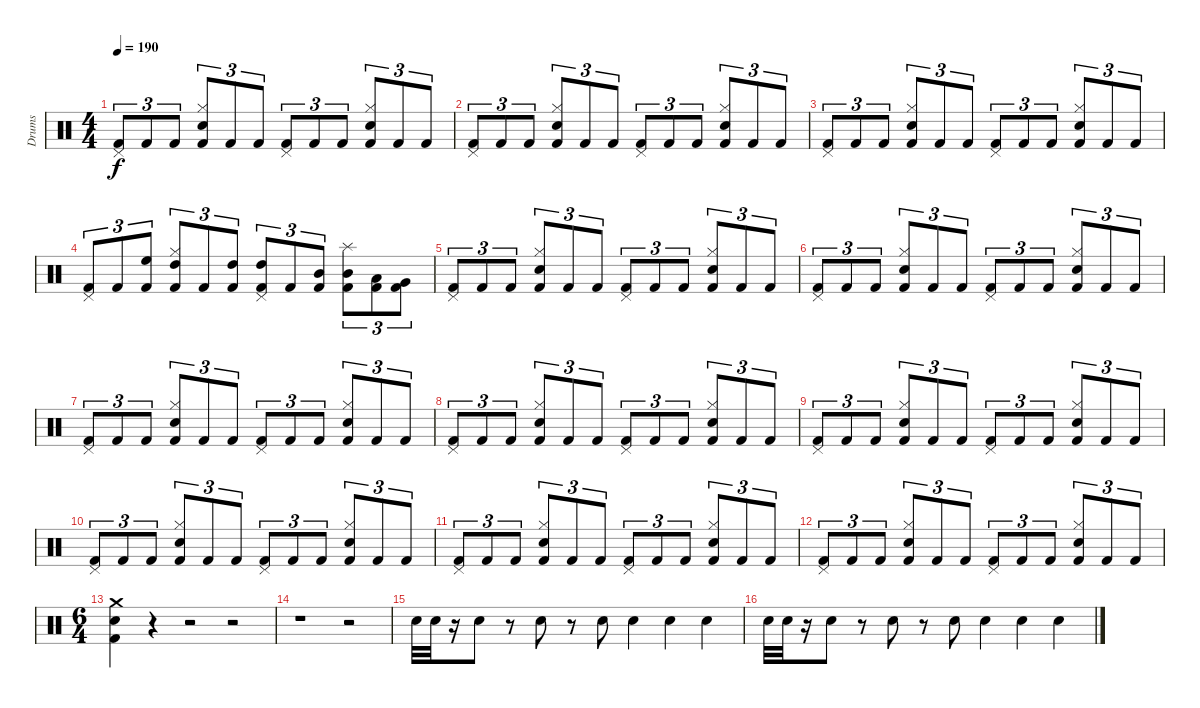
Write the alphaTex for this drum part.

\track ("Drums" "Drums") {instrument percussion}
\staff {score}
\articulation defaults
\ts (4 4)
\tempo 190
\clef neutral
\ks c
("Pedal Hi-Hat (hit)" "Kick (hit) 2").8{tu (3 2) dy f} "Kick (hit) 2".8{tu (3 2)} "Kick (hit) 2".8{tu (3 2)} ("Hi-Hat (closed)" "Snare (hit) 2" "Kick (hit) 2").8{tu (3 2)} "Kick (hit) 2".8{tu (3 2)} "Kick (hit) 2".8{tu (3 2)} ("Pedal Hi-Hat (hit)" "Kick (hit) 2").8{tu (3 2)} "Kick (hit) 2".8{tu (3 2)} "Kick (hit) 2".8{tu (3 2)} ("Hi-Hat (closed)" "Snare (hit) 2" "Kick (hit) 2").8{tu (3 2)} "Kick (hit) 2".8{tu (3 2)} "Kick (hit) 2".8{tu (3 2)} |
("Pedal Hi-Hat (hit)" "Kick (hit) 2").8{tu (3 2)} "Kick (hit) 2".8{tu (3 2)} "Kick (hit) 2".8{tu (3 2)} ("Hi-Hat (closed)" "Snare (hit) 2" "Kick (hit) 2").8{tu (3 2)} "Kick (hit) 2".8{tu (3 2)} "Kick (hit) 2".8{tu (3 2)} ("Pedal Hi-Hat (hit)" "Kick (hit) 2").8{tu (3 2)} "Kick (hit) 2".8{tu (3 2)} "Kick (hit) 2".8{tu (3 2)} ("Hi-Hat (closed)" "Snare (hit) 2" "Kick (hit) 2").8{tu (3 2)} "Kick (hit) 2".8{tu (3 2)} "Kick (hit) 2".8{tu (3 2)} |
("Pedal Hi-Hat (hit)" "Kick (hit) 2").8{tu (3 2)} "Kick (hit) 2".8{tu (3 2)} "Kick (hit) 2".8{tu (3 2)} ("Hi-Hat (closed)" "Snare (hit) 2" "Kick (hit) 2").8{tu (3 2)} "Kick (hit) 2".8{tu (3 2)} "Kick (hit) 2".8{tu (3 2)} ("Pedal Hi-Hat (hit)" "Kick (hit) 2").8{tu (3 2)} "Kick (hit) 2".8{tu (3 2)} "Kick (hit) 2".8{tu (3 2)} ("Hi-Hat (closed)" "Snare (hit) 2" "Kick (hit) 2").8{tu (3 2)} "Kick (hit) 2".8{tu (3 2)} "Kick (hit) 2".8{tu (3 2)} |
("Pedal Hi-Hat (hit)" "Kick (hit) 2").8{tu (3 2)} "Kick (hit) 2".8{tu (3 2)} ("High Floor Tom (hit)" "Kick (hit) 2").8{tu (3 2)} ("Hi-Hat (closed)" "High Tom (hit)" "Kick (hit) 2").8{tu (3 2)} "Kick (hit) 2".8{tu (3 2)} ("High Tom (hit)" "Kick (hit) 2").8{tu (3 2)} ("Pedal Hi-Hat (hit)" "High Tom (hit)" "Kick (hit) 2").8{tu (3 2)} "Kick (hit) 2".8{tu (3 2)} ("Mid Tom (hit)" "Kick (hit) 2").8{tu (3 2)} ("Splash (hit)" "Mid Tom (hit)" "Kick (hit) 2").8{tu (3 2)} ("Low Tom (hit)" "Kick (hit) 2").8{tu (3 2)} ("Very Low Tom (hit)" "Kick (hit) 2").8{tu (3 2)} |
("Pedal Hi-Hat (hit)" "Kick (hit) 2").8{tu (3 2)} "Kick (hit) 2".8{tu (3 2)} "Kick (hit) 2".8{tu (3 2)} ("Hi-Hat (closed)" "Snare (hit) 2" "Kick (hit) 2").8{tu (3 2)} "Kick (hit) 2".8{tu (3 2)} "Kick (hit) 2".8{tu (3 2)} ("Pedal Hi-Hat (hit)" "Kick (hit) 2").8{tu (3 2)} "Kick (hit) 2".8{tu (3 2)} "Kick (hit) 2".8{tu (3 2)} ("Hi-Hat (closed)" "Snare (hit) 2" "Kick (hit) 2").8{tu (3 2)} "Kick (hit) 2".8{tu (3 2)} "Kick (hit) 2".8{tu (3 2)} |
("Pedal Hi-Hat (hit)" "Kick (hit) 2").8{tu (3 2)} "Kick (hit) 2".8{tu (3 2)} "Kick (hit) 2".8{tu (3 2)} ("Hi-Hat (closed)" "Snare (hit) 2" "Kick (hit) 2").8{tu (3 2)} "Kick (hit) 2".8{tu (3 2)} "Kick (hit) 2".8{tu (3 2)} ("Pedal Hi-Hat (hit)" "Kick (hit) 2").8{tu (3 2)} "Kick (hit) 2".8{tu (3 2)} "Kick (hit) 2".8{tu (3 2)} ("Hi-Hat (closed)" "Snare (hit) 2" "Kick (hit) 2").8{tu (3 2)} "Kick (hit) 2".8{tu (3 2)} "Kick (hit) 2".8{tu (3 2)} |
("Pedal Hi-Hat (hit)" "Kick (hit) 2").8{tu (3 2)} "Kick (hit) 2".8{tu (3 2)} "Kick (hit) 2".8{tu (3 2)} ("Hi-Hat (closed)" "Snare (hit) 2" "Kick (hit) 2").8{tu (3 2)} "Kick (hit) 2".8{tu (3 2)} "Kick (hit) 2".8{tu (3 2)} ("Pedal Hi-Hat (hit)" "Kick (hit) 2").8{tu (3 2)} "Kick (hit) 2".8{tu (3 2)} "Kick (hit) 2".8{tu (3 2)} ("Hi-Hat (closed)" "Snare (hit) 2" "Kick (hit) 2").8{tu (3 2)} "Kick (hit) 2".8{tu (3 2)} "Kick (hit) 2".8{tu (3 2)} |
("Pedal Hi-Hat (hit)" "Kick (hit) 2").8{tu (3 2)} "Kick (hit) 2".8{tu (3 2)} "Kick (hit) 2".8{tu (3 2)} ("Hi-Hat (closed)" "Snare (hit) 2" "Kick (hit) 2").8{tu (3 2)} "Kick (hit) 2".8{tu (3 2)} "Kick (hit) 2".8{tu (3 2)} ("Pedal Hi-Hat (hit)" "Kick (hit) 2").8{tu (3 2)} "Kick (hit) 2".8{tu (3 2)} "Kick (hit) 2".8{tu (3 2)} ("Hi-Hat (closed)" "Snare (hit) 2" "Kick (hit) 2").8{tu (3 2)} "Kick (hit) 2".8{tu (3 2)} "Kick (hit) 2".8{tu (3 2)} |
("Pedal Hi-Hat (hit)" "Kick (hit) 2").8{tu (3 2)} "Kick (hit) 2".8{tu (3 2)} "Kick (hit) 2".8{tu (3 2)} ("Hi-Hat (closed)" "Snare (hit) 2" "Kick (hit) 2").8{tu (3 2)} "Kick (hit) 2".8{tu (3 2)} "Kick (hit) 2".8{tu (3 2)} ("Pedal Hi-Hat (hit)" "Kick (hit) 2").8{tu (3 2)} "Kick (hit) 2".8{tu (3 2)} "Kick (hit) 2".8{tu (3 2)} ("Hi-Hat (closed)" "Snare (hit) 2" "Kick (hit) 2").8{tu (3 2)} "Kick (hit) 2".8{tu (3 2)} "Kick (hit) 2".8{tu (3 2)} |
("Pedal Hi-Hat (hit)" "Kick (hit) 2").8{tu (3 2)} "Kick (hit) 2".8{tu (3 2)} "Kick (hit) 2".8{tu (3 2)} ("Hi-Hat (closed)" "Snare (hit) 2" "Kick (hit) 2").8{tu (3 2)} "Kick (hit) 2".8{tu (3 2)} "Kick (hit) 2".8{tu (3 2)} ("Pedal Hi-Hat (hit)" "Kick (hit) 2").8{tu (3 2)} "Kick (hit) 2".8{tu (3 2)} "Kick (hit) 2".8{tu (3 2)} ("Hi-Hat (closed)" "Snare (hit) 2" "Kick (hit) 2").8{tu (3 2)} "Kick (hit) 2".8{tu (3 2)} "Kick (hit) 2".8{tu (3 2)} |
("Pedal Hi-Hat (hit)" "Kick (hit) 2").8{tu (3 2)} "Kick (hit) 2".8{tu (3 2)} "Kick (hit) 2".8{tu (3 2)} ("Hi-Hat (closed)" "Snare (hit) 2" "Kick (hit) 2").8{tu (3 2)} "Kick (hit) 2".8{tu (3 2)} "Kick (hit) 2".8{tu (3 2)} ("Pedal Hi-Hat (hit)" "Kick (hit) 2").8{tu (3 2)} "Kick (hit) 2".8{tu (3 2)} "Kick (hit) 2".8{tu (3 2)} ("Hi-Hat (closed)" "Snare (hit) 2" "Kick (hit) 2").8{tu (3 2)} "Kick (hit) 2".8{tu (3 2)} "Kick (hit) 2".8{tu (3 2)} |
("Pedal Hi-Hat (hit)" "Kick (hit) 2").8{tu (3 2)} "Kick (hit) 2".8{tu (3 2)} "Kick (hit) 2".8{tu (3 2)} ("Hi-Hat (closed)" "Snare (hit) 2" "Kick (hit) 2").8{tu (3 2)} "Kick (hit) 2".8{tu (3 2)} "Kick (hit) 2".8{tu (3 2)} ("Pedal Hi-Hat (hit)" "Kick (hit) 2").8{tu (3 2)} "Kick (hit) 2".8{tu (3 2)} "Kick (hit) 2".8{tu (3 2)} ("Hi-Hat (closed)" "Snare (hit) 2" "Kick (hit) 2").8{tu (3 2)} "Kick (hit) 2".8{tu (3 2)} "Kick (hit) 2".8{tu (3 2)} |
\ts (6 4)
("Crash medium (hit)" "Snare (hit) 2" "Kick (hit) 2").4 r.4 r.2 r.2 |
r.1 r.2 |
"Snare (hit) 2".32 "Snare (hit) 2".32 r.16 "Snare (hit) 2".8 r.8 "Snare (hit) 2".8 r.8 "Snare (hit) 2".8 "Snare (hit) 2".4 "Snare (hit) 2".4 "Snare (hit) 2".4 |
"Snare (hit) 2".32 "Snare (hit) 2".32 r.16 "Snare (hit) 2".8 r.8 "Snare (hit) 2".8 r.8 "Snare (hit) 2".8 "Snare (hit) 2".4 "Snare (hit) 2".4 "Snare (hit) 2".4
